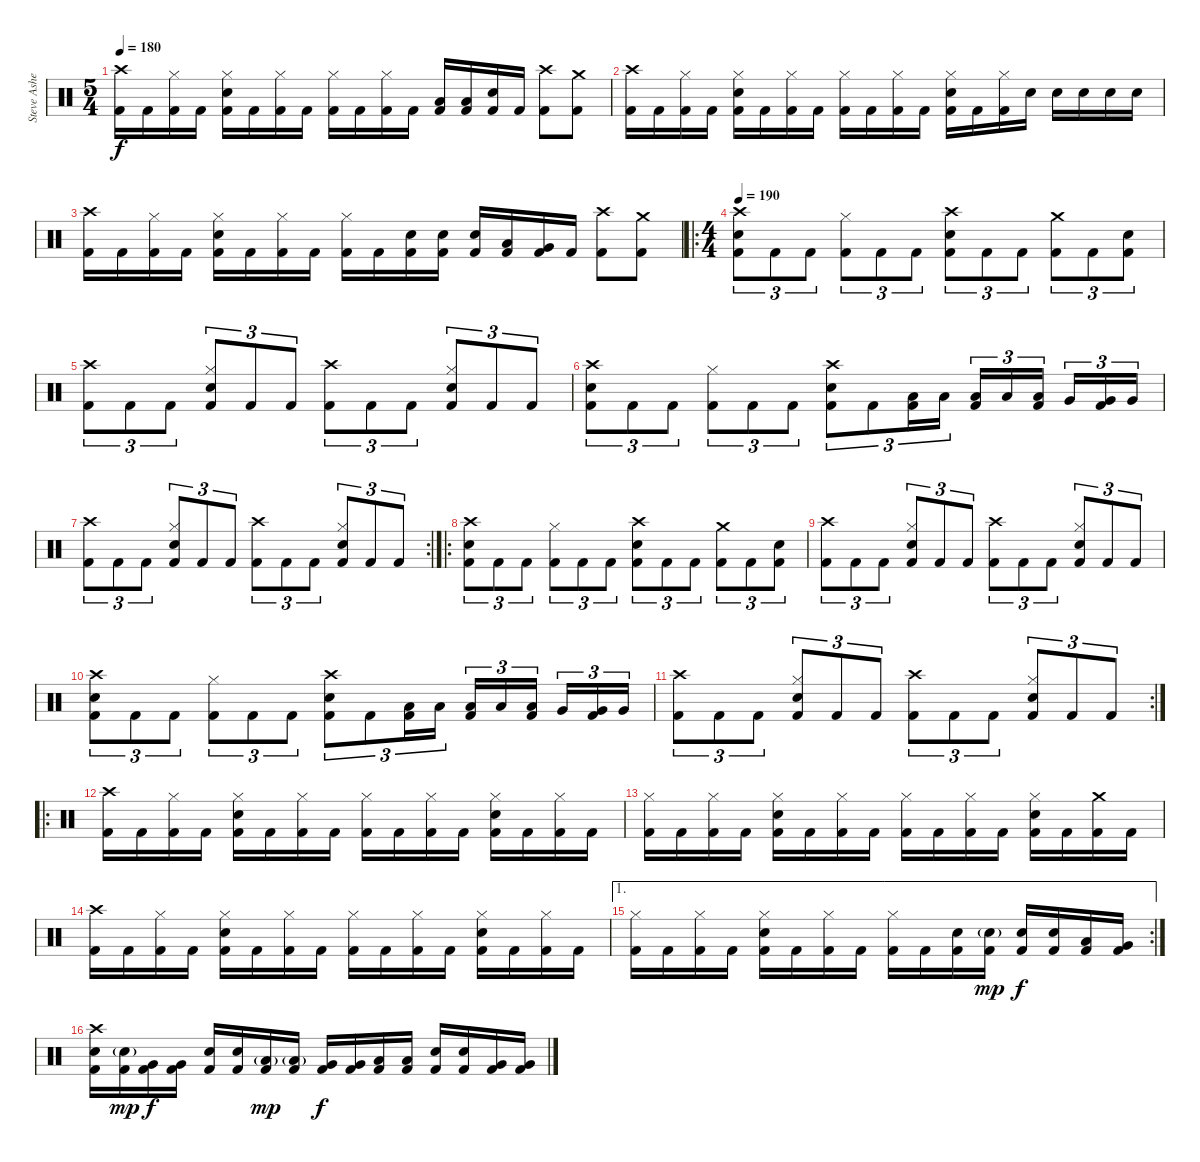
\track ("Steve Asheim" "Steve Ashe") {instrument percussion}
\staff {score}
\articulation defaults
\ts (5 4)
\tempo 180
\clef neutral
\ks c
("Crash high (hit)" "Kick (hit) 2").16{dy f} "Kick (hit) 2".16 ("Hi-Hat (closed)" "Kick (hit) 2").16 "Kick (hit) 2".16 ("Hi-Hat (closed)" "Snare (hit) 2" "Kick (hit) 2").16 "Kick (hit) 2".16 ("Hi-Hat (closed)" "Kick (hit) 2").16 "Kick (hit) 2".16 ("Hi-Hat (closed)" "Kick (hit) 2").16 "Kick (hit) 2".16 ("Hi-Hat (closed)" "Kick (hit) 2").16 "Kick (hit) 2".16 ("Low Tom (hit)" "Kick (hit) 2").16 ("Low Tom (hit)" "Kick (hit) 2").16 ("Snare (hit) 2" "Kick (hit) 2").16 "Kick (hit) 2".16 ("Crash high (hit)" "Kick (hit) 2").8 ("Crash medium (hit)" "Kick (hit) 2").8 |
("Crash high (hit)" "Kick (hit) 2").16 "Kick (hit) 2".16 ("Hi-Hat (closed)" "Kick (hit) 2").16 "Kick (hit) 2".16 ("Hi-Hat (closed)" "Snare (hit) 2" "Kick (hit) 2").16 "Kick (hit) 2".16 ("Hi-Hat (closed)" "Kick (hit) 2").16 "Kick (hit) 2".16 ("Hi-Hat (closed)" "Kick (hit) 2").16 "Kick (hit) 2".16 ("Hi-Hat (closed)" "Kick (hit) 2").16 "Kick (hit) 2".16 ("Hi-Hat (closed)" "Snare (hit) 2" "Kick (hit) 2").16 "Kick (hit) 2".16 ("Hi-Hat (closed)" "Kick (hit) 2").16 "Snare (hit) 2".16 "Snare (hit) 2".16 "Snare (hit) 2".16 "Snare (hit) 2".16 "Snare (hit) 2".16 |
("Crash high (hit)" "Kick (hit) 2").16 "Kick (hit) 2".16 ("Hi-Hat (closed)" "Kick (hit) 2").16 "Kick (hit) 2".16 ("Hi-Hat (closed)" "Snare (hit) 2" "Kick (hit) 2").16 "Kick (hit) 2".16 ("Hi-Hat (closed)" "Kick (hit) 2").16 "Kick (hit) 2".16 ("Hi-Hat (closed)" "Kick (hit) 2").16 "Kick (hit) 2".16 ("Snare (hit) 2" "Kick (hit) 2").16 ("Snare (hit) 2" "Kick (hit) 2").16 ("Snare (hit) 2" "Kick (hit) 2").16 ("Low Tom (hit)" "Kick (hit) 2").16 ("Very Low Tom (hit)" "Kick (hit) 2").16 "Kick (hit) 2".16 ("Crash high (hit)" "Kick (hit) 2").8 ("Crash medium (hit)" "Kick (hit) 2").8 |
\ro
\ts (4 4)
\tempo 190
("Crash high (hit)" "Snare (hit) 2" "Kick (hit) 2").8{tu (3 2)} "Kick (hit) 2".8{tu (3 2)} "Kick (hit) 2".8{tu (3 2)} ("Hi-Hat (closed)" "Kick (hit) 2").8{tu (3 2)} "Kick (hit) 2".8{tu (3 2)} "Kick (hit) 2".8{tu (3 2)} ("Crash high (hit)" "Snare (hit) 2" "Kick (hit) 2").8{tu (3 2)} "Kick (hit) 2".8{tu (3 2)} "Kick (hit) 2".8{tu (3 2)} ("Crash medium (hit)" "Kick (hit) 2").8{tu (3 2)} "Kick (hit) 2".8{tu (3 2)} ("Snare (hit) 2" "Kick (hit) 2").8{tu (3 2)} |
("Crash high (hit)" "Kick (hit) 2").8{tu (3 2)} "Kick (hit) 2".8{tu (3 2)} "Kick (hit) 2".8{tu (3 2)} ("Hi-Hat (closed)" "Snare (hit) 2" "Kick (hit) 2").8{tu (3 2)} "Kick (hit) 2".8{tu (3 2)} "Kick (hit) 2".8{tu (3 2)} ("Crash high (hit)" "Kick (hit) 2").8{tu (3 2)} "Kick (hit) 2".8{tu (3 2)} "Kick (hit) 2".8{tu (3 2)} ("Hi-Hat (closed)" "Snare (hit) 2" "Kick (hit) 2").8{tu (3 2)} "Kick (hit) 2".8{tu (3 2)} "Kick (hit) 2".8{tu (3 2)} |
("Crash high (hit)" "Snare (hit) 2" "Kick (hit) 2").8{tu (3 2)} "Kick (hit) 2".8{tu (3 2)} "Kick (hit) 2".8{tu (3 2)} ("Hi-Hat (closed)" "Kick (hit) 2").8{tu (3 2)} "Kick (hit) 2".8{tu (3 2)} "Kick (hit) 2".8{tu (3 2)} ("Crash high (hit)" "Snare (hit) 2" "Kick (hit) 2").8{tu (3 2)} "Kick (hit) 2".8{tu (3 2)} ("Low Tom (hit)" "Kick (hit) 2").16{tu (3 2)} "Low Tom (hit)".16{tu (3 2)} ("Low Tom (hit)" "Kick (hit) 2").16{tu (3 2)} "Low Tom (hit)".16{tu (3 2)} ("Low Tom (hit)" "Kick (hit) 2").16{tu (3 2) beam splitsecondary} "Very Low Tom (hit)".16{tu (3 2)} ("Very Low Tom (hit)" "Kick (hit) 2").16{tu (3 2)} "Very Low Tom (hit)".16{tu (3 2)} |
\rc 2
("Crash high (hit)" "Kick (hit) 2").8{tu (3 2)} "Kick (hit) 2".8{tu (3 2)} "Kick (hit) 2".8{tu (3 2)} ("Hi-Hat (closed)" "Snare (hit) 2" "Kick (hit) 2").8{tu (3 2)} "Kick (hit) 2".8{tu (3 2)} "Kick (hit) 2".8{tu (3 2)} ("Crash high (hit)" "Kick (hit) 2").8{tu (3 2)} "Kick (hit) 2".8{tu (3 2)} "Kick (hit) 2".8{tu (3 2)} ("Hi-Hat (closed)" "Snare (hit) 2" "Kick (hit) 2").8{tu (3 2)} "Kick (hit) 2".8{tu (3 2)} "Kick (hit) 2".8{tu (3 2)} |
\ro
("Crash high (hit)" "Snare (hit) 2" "Kick (hit) 2").8{tu (3 2)} "Kick (hit) 2".8{tu (3 2)} "Kick (hit) 2".8{tu (3 2)} ("Hi-Hat (closed)" "Kick (hit) 2").8{tu (3 2)} "Kick (hit) 2".8{tu (3 2)} "Kick (hit) 2".8{tu (3 2)} ("Crash high (hit)" "Snare (hit) 2" "Kick (hit) 2").8{tu (3 2)} "Kick (hit) 2".8{tu (3 2)} "Kick (hit) 2".8{tu (3 2)} ("Crash medium (hit)" "Kick (hit) 2").8{tu (3 2)} "Kick (hit) 2".8{tu (3 2)} ("Snare (hit) 2" "Kick (hit) 2").8{tu (3 2)} |
("Crash high (hit)" "Kick (hit) 2").8{tu (3 2)} "Kick (hit) 2".8{tu (3 2)} "Kick (hit) 2".8{tu (3 2)} ("Hi-Hat (closed)" "Snare (hit) 2" "Kick (hit) 2").8{tu (3 2)} "Kick (hit) 2".8{tu (3 2)} "Kick (hit) 2".8{tu (3 2)} ("Crash high (hit)" "Kick (hit) 2").8{tu (3 2)} "Kick (hit) 2".8{tu (3 2)} "Kick (hit) 2".8{tu (3 2)} ("Hi-Hat (closed)" "Snare (hit) 2" "Kick (hit) 2").8{tu (3 2)} "Kick (hit) 2".8{tu (3 2)} "Kick (hit) 2".8{tu (3 2)} |
("Crash high (hit)" "Snare (hit) 2" "Kick (hit) 2").8{tu (3 2)} "Kick (hit) 2".8{tu (3 2)} "Kick (hit) 2".8{tu (3 2)} ("Hi-Hat (closed)" "Kick (hit) 2").8{tu (3 2)} "Kick (hit) 2".8{tu (3 2)} "Kick (hit) 2".8{tu (3 2)} ("Crash high (hit)" "Snare (hit) 2" "Kick (hit) 2").8{tu (3 2)} "Kick (hit) 2".8{tu (3 2)} ("Low Tom (hit)" "Kick (hit) 2").16{tu (3 2)} "Low Tom (hit)".16{tu (3 2)} ("Low Tom (hit)" "Kick (hit) 2").16{tu (3 2)} "Low Tom (hit)".16{tu (3 2)} ("Low Tom (hit)" "Kick (hit) 2").16{tu (3 2) beam splitsecondary} "Very Low Tom (hit)".16{tu (3 2)} ("Very Low Tom (hit)" "Kick (hit) 2").16{tu (3 2)} "Very Low Tom (hit)".16{tu (3 2)} |
\rc 2
("Crash high (hit)" "Kick (hit) 2").8{tu (3 2)} "Kick (hit) 2".8{tu (3 2)} "Kick (hit) 2".8{tu (3 2)} ("Hi-Hat (closed)" "Snare (hit) 2" "Kick (hit) 2").8{tu (3 2)} "Kick (hit) 2".8{tu (3 2)} "Kick (hit) 2".8{tu (3 2)} ("Crash high (hit)" "Kick (hit) 2").8{tu (3 2)} "Kick (hit) 2".8{tu (3 2)} "Kick (hit) 2".8{tu (3 2)} ("Hi-Hat (closed)" "Snare (hit) 2" "Kick (hit) 2").8{tu (3 2)} "Kick (hit) 2".8{tu (3 2)} "Kick (hit) 2".8{tu (3 2)} |
\ro
("Crash high (hit)" "Kick (hit) 2").16 "Kick (hit) 2".16 ("Hi-Hat (closed)" "Kick (hit) 2").16 "Kick (hit) 2".16 ("Hi-Hat (closed)" "Snare (hit) 2" "Kick (hit) 2").16 "Kick (hit) 2".16 ("Hi-Hat (closed)" "Kick (hit) 2").16 "Kick (hit) 2".16 ("Hi-Hat (closed)" "Kick (hit) 2").16 "Kick (hit) 2".16 ("Hi-Hat (closed)" "Kick (hit) 2").16 "Kick (hit) 2".16 ("Hi-Hat (closed)" "Snare (hit) 2" "Kick (hit) 2").16 "Kick (hit) 2".16 ("Hi-Hat (closed)" "Kick (hit) 2").16 "Kick (hit) 2".16 |
("Hi-Hat (closed)" "Kick (hit) 2").16 "Kick (hit) 2".16 ("Hi-Hat (closed)" "Kick (hit) 2").16 "Kick (hit) 2".16 ("Hi-Hat (closed)" "Snare (hit) 2" "Kick (hit) 2").16 "Kick (hit) 2".16 ("Hi-Hat (closed)" "Kick (hit) 2").16 "Kick (hit) 2".16 ("Hi-Hat (closed)" "Kick (hit) 2").16 "Kick (hit) 2".16 ("Hi-Hat (closed)" "Kick (hit) 2").16 "Kick (hit) 2".16 ("Hi-Hat (closed)" "Snare (hit) 2" "Kick (hit) 2").16 "Kick (hit) 2".16 ("Crash medium (hit)" "Kick (hit) 2").16 "Kick (hit) 2".16 |
("Crash high (hit)" "Kick (hit) 2").16 "Kick (hit) 2".16 ("Hi-Hat (closed)" "Kick (hit) 2").16 "Kick (hit) 2".16 ("Hi-Hat (closed)" "Snare (hit) 2" "Kick (hit) 2").16 "Kick (hit) 2".16 ("Hi-Hat (closed)" "Kick (hit) 2").16 "Kick (hit) 2".16 ("Hi-Hat (closed)" "Kick (hit) 2").16 "Kick (hit) 2".16 ("Hi-Hat (closed)" "Kick (hit) 2").16 "Kick (hit) 2".16 ("Hi-Hat (closed)" "Snare (hit) 2" "Kick (hit) 2").16 "Kick (hit) 2".16 ("Hi-Hat (closed)" "Kick (hit) 2").16 "Kick (hit) 2".16 |
\ae 1
\rc 2
("Hi-Hat (closed)" "Kick (hit) 2").16 "Kick (hit) 2".16 ("Hi-Hat (closed)" "Kick (hit) 2").16 "Kick (hit) 2".16 ("Hi-Hat (closed)" "Snare (hit) 2" "Kick (hit) 2").16 "Kick (hit) 2".16 ("Hi-Hat (closed)" "Kick (hit) 2").16 "Kick (hit) 2".16 ("Hi-Hat (closed)" "Kick (hit) 2").16 "Kick (hit) 2".16 ("Snare (hit) 2" "Kick (hit) 2").16 ("Snare (hit) 2"{g} "Kick (hit) 2").16{dy mp} ("Snare (hit) 2" "Kick (hit) 2").16{dy f} ("Snare (hit) 2" "Kick (hit) 2").16 ("Low Tom (hit)" "Kick (hit) 2").16 ("Very Low Tom (hit)" "Kick (hit) 2").16 |
("Crash high (hit)" "Snare (hit) 2" "Kick (hit) 2").16 ("Snare (hit) 2"{g} "Kick (hit) 2").16{dy mp} ("Very Low Tom (hit)" "Kick (hit) 2").16{dy f} ("Very Low Tom (hit)" "Kick (hit) 2").16 ("Snare (hit) 2" "Kick (hit) 2").16 ("Snare (hit) 2" "Kick (hit) 2").16 ("Low Tom (hit)"{g} "Kick (hit) 2").16{dy mp} ("Low Tom (hit)"{g} "Kick (hit) 2").16 ("Very Low Tom (hit)" "Kick (hit) 2").16{dy f} ("Very Low Tom (hit)" "Kick (hit) 2").16 ("Low Floor Tom (hit)" "Kick (hit) 2").16 ("Low Floor Tom (hit)" "Kick (hit) 2").16 ("Snare (hit) 2" "Kick (hit) 2").16 ("Snare (hit) 2" "Kick (hit) 2").16 ("Very Low Tom (hit)" "Kick (hit) 2").16 ("Very Low Tom (hit)" "Kick (hit) 2").16
